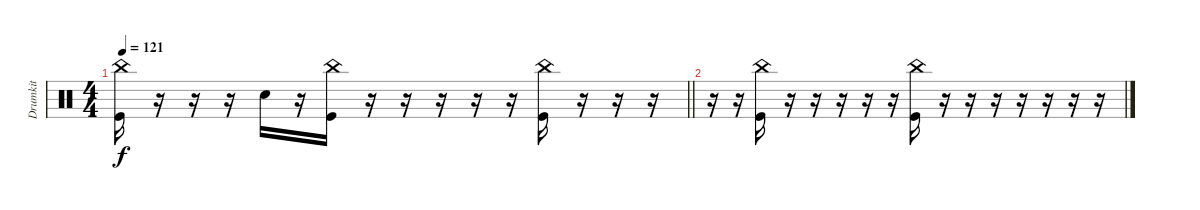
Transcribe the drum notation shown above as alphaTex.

\track ("Drumkit" "Drumkit") {instrument percussion}
\staff {score}
\articulation defaults
\ts (4 4)
\tempo 121
\clef neutral
\barLineRight lightlight
\ks c
("China (hit)" "Kick (hit)").16{dy f} r.16 r.16 r.16 "Snare (hit) 2".16 r.16 ("China (hit)" "Kick (hit)").16 r.16 r.16 r.16 r.16 r.16 ("China (hit)" "Kick (hit)").16 r.16 r.16 r.16 |
r.16 r.16 ("China (hit)" "Kick (hit)").16 r.16 r.16 r.16 r.16 r.16 ("China (hit)" "Kick (hit)").16 r.16 r.16 r.16 r.16 r.16 r.16 r.16
